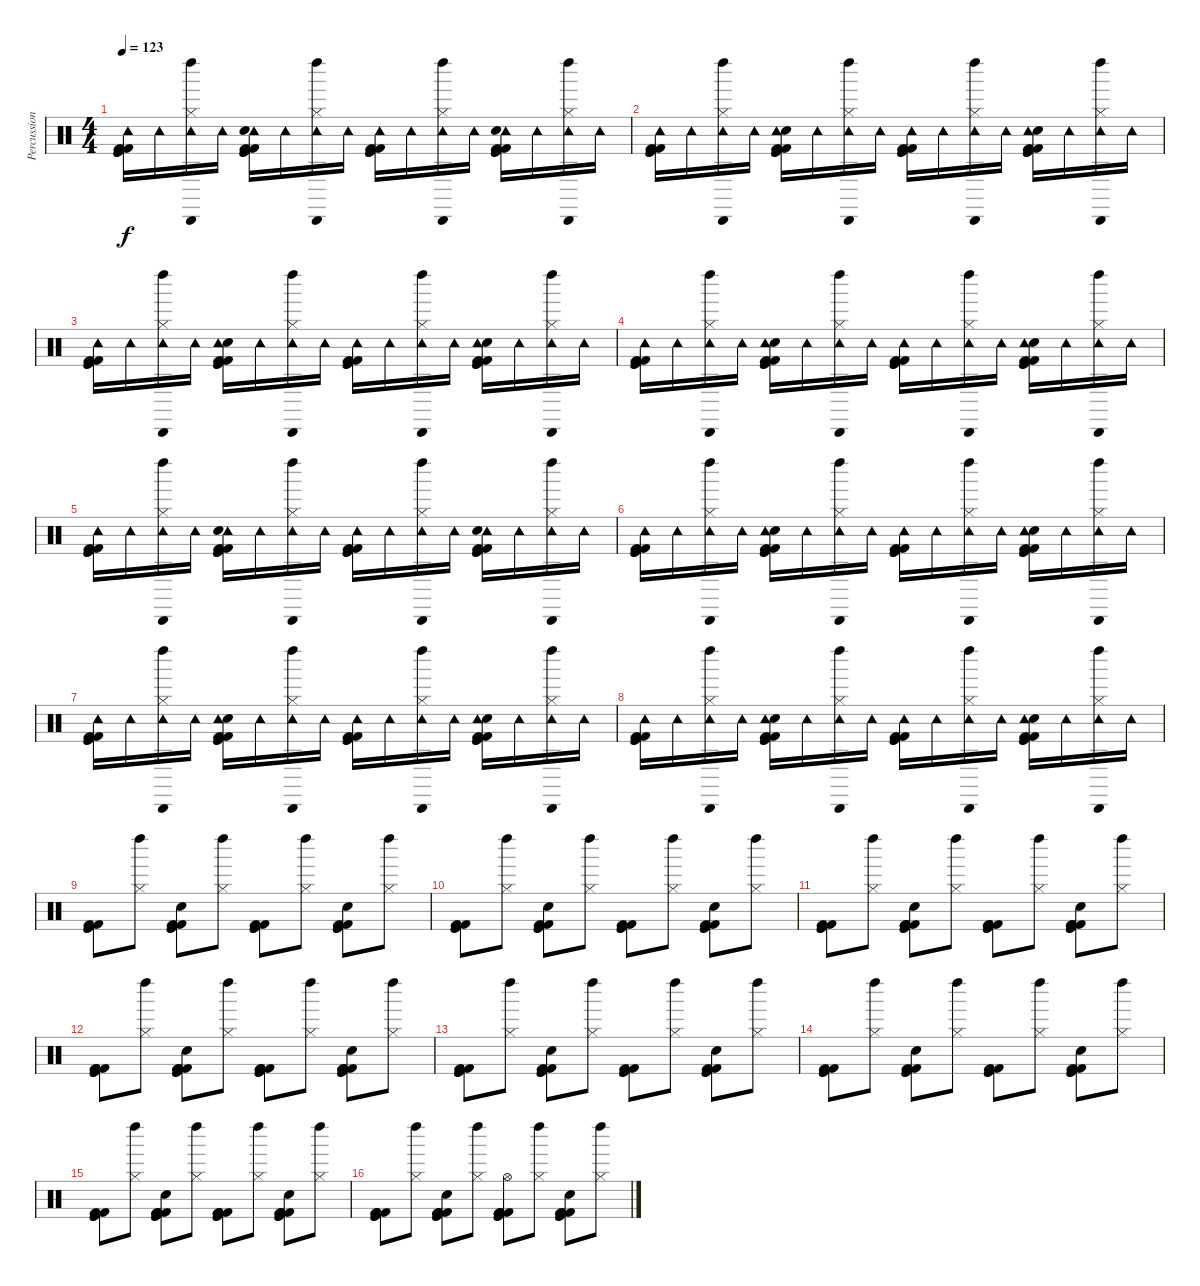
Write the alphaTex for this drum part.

\track ("Percussion" "Percussion") {instrument percussion}
\staff {score}
\articulation defaults
\ts (4 4)
\tempo 123
\clef neutral
\ks c
("Tambourine (hit)" "Kick (hit)" "Kick (hit)" "Kick (hit) 2" "Kick (hit) 2").16{dy f} "Tambourine (hit)".16 ("Tambourine (hit)" "Cabasa (hit)" "Left Maraca (hit)" "Hi-Hat (closed)").16 "Tambourine (hit)".16 ("Tambourine (hit)" "Hand Clap (hit)" "Kick (hit)" "Kick (hit)" "Kick (hit) 2" "Kick (hit) 2").16 "Tambourine (hit)".16 ("Tambourine (hit)" "Cabasa (hit)" "Left Maraca (hit)" "Hi-Hat (closed)").16 "Tambourine (hit)".16 ("Tambourine (hit)" "Kick (hit)" "Kick (hit) 2" "Kick (hit) 2" "Kick (hit)").16 "Tambourine (hit)".16 ("Tambourine (hit)" "Cabasa (hit)" "Left Maraca (hit)" "Hi-Hat (closed)").16 "Tambourine (hit)".16 ("Tambourine (hit)" "Hand Clap (hit)" "Kick (hit) 2" "Kick (hit)" "Kick (hit) 2" "Kick (hit)").16 "Tambourine (hit)".16 ("Tambourine (hit)" "Cabasa (hit)" "Left Maraca (hit)" "Hi-Hat (closed)").16 "Tambourine (hit)".16 |
("Kick (hit)" "Kick (hit)" "Kick (hit) 2" "Kick (hit) 2" "Tambourine (hit)").16 "Tambourine (hit)".16 ("Cabasa (hit)" "Left Maraca (hit)" "Hi-Hat (closed)" "Tambourine (hit)").16 "Tambourine (hit)".16 ("Hand Clap (hit)" "Kick (hit)" "Kick (hit)" "Kick (hit) 2" "Kick (hit) 2" "Tambourine (hit)").16 "Tambourine (hit)".16 ("Cabasa (hit)" "Left Maraca (hit)" "Hi-Hat (closed)" "Tambourine (hit)").16 "Tambourine (hit)".16 ("Kick (hit)" "Kick (hit) 2" "Kick (hit) 2" "Kick (hit)" "Tambourine (hit)").16 "Tambourine (hit)".16 ("Cabasa (hit)" "Left Maraca (hit)" "Hi-Hat (closed)" "Tambourine (hit)").16 "Tambourine (hit)".16 ("Hand Clap (hit)" "Kick (hit) 2" "Kick (hit)" "Kick (hit) 2" "Kick (hit)" "Tambourine (hit)").16 "Tambourine (hit)".16 ("Cabasa (hit)" "Left Maraca (hit)" "Hi-Hat (closed)" "Tambourine (hit)").16 "Tambourine (hit)".16 |
("Kick (hit)" "Kick (hit)" "Kick (hit) 2" "Kick (hit) 2" "Tambourine (hit)").16 "Tambourine (hit)".16 ("Cabasa (hit)" "Left Maraca (hit)" "Hi-Hat (closed)" "Tambourine (hit)").16 "Tambourine (hit)".16 ("Hand Clap (hit)" "Kick (hit)" "Kick (hit)" "Kick (hit) 2" "Kick (hit) 2" "Tambourine (hit)").16 "Tambourine (hit)".16 ("Cabasa (hit)" "Left Maraca (hit)" "Hi-Hat (closed)" "Tambourine (hit)").16 "Tambourine (hit)".16 ("Kick (hit)" "Kick (hit) 2" "Kick (hit) 2" "Kick (hit)" "Tambourine (hit)").16 "Tambourine (hit)".16 ("Cabasa (hit)" "Left Maraca (hit)" "Hi-Hat (closed)" "Tambourine (hit)").16 "Tambourine (hit)".16 ("Hand Clap (hit)" "Kick (hit) 2" "Kick (hit)" "Kick (hit) 2" "Kick (hit)" "Tambourine (hit)").16 "Tambourine (hit)".16 ("Cabasa (hit)" "Left Maraca (hit)" "Hi-Hat (closed)" "Tambourine (hit)").16 "Tambourine (hit)".16 |
("Kick (hit)" "Kick (hit)" "Kick (hit) 2" "Kick (hit) 2" "Tambourine (hit)").16 "Tambourine (hit)".16 ("Cabasa (hit)" "Left Maraca (hit)" "Hi-Hat (closed)" "Tambourine (hit)").16 "Tambourine (hit)".16 ("Hand Clap (hit)" "Kick (hit)" "Kick (hit)" "Kick (hit) 2" "Kick (hit) 2" "Tambourine (hit)").16 "Tambourine (hit)".16 ("Cabasa (hit)" "Left Maraca (hit)" "Hi-Hat (closed)" "Tambourine (hit)").16 "Tambourine (hit)".16 ("Kick (hit)" "Kick (hit) 2" "Kick (hit) 2" "Kick (hit)" "Tambourine (hit)").16 "Tambourine (hit)".16 ("Cabasa (hit)" "Left Maraca (hit)" "Hi-Hat (closed)" "Tambourine (hit)").16 "Tambourine (hit)".16 ("Hand Clap (hit)" "Kick (hit) 2" "Kick (hit)" "Kick (hit) 2" "Kick (hit)" "Tambourine (hit)").16 "Tambourine (hit)".16 ("Cabasa (hit)" "Left Maraca (hit)" "Hi-Hat (closed)" "Tambourine (hit)").16 "Tambourine (hit)".16 |
("Tambourine (hit)" "Kick (hit)" "Kick (hit)" "Kick (hit) 2" "Kick (hit) 2").16 "Tambourine (hit)".16 ("Tambourine (hit)" "Cabasa (hit)" "Left Maraca (hit)" "Hi-Hat (closed)").16 "Tambourine (hit)".16 ("Tambourine (hit)" "Hand Clap (hit)" "Kick (hit)" "Kick (hit)" "Kick (hit) 2" "Kick (hit) 2").16 "Tambourine (hit)".16 ("Tambourine (hit)" "Cabasa (hit)" "Left Maraca (hit)" "Hi-Hat (closed)").16 "Tambourine (hit)".16 ("Tambourine (hit)" "Kick (hit)" "Kick (hit) 2" "Kick (hit) 2" "Kick (hit)").16 "Tambourine (hit)".16 ("Tambourine (hit)" "Cabasa (hit)" "Left Maraca (hit)" "Hi-Hat (closed)").16 "Tambourine (hit)".16 ("Tambourine (hit)" "Hand Clap (hit)" "Kick (hit) 2" "Kick (hit)" "Kick (hit) 2" "Kick (hit)").16 "Tambourine (hit)".16 ("Tambourine (hit)" "Cabasa (hit)" "Left Maraca (hit)" "Hi-Hat (closed)").16 "Tambourine (hit)".16 |
("Kick (hit)" "Kick (hit)" "Kick (hit) 2" "Kick (hit) 2" "Tambourine (hit)").16 "Tambourine (hit)".16 ("Cabasa (hit)" "Left Maraca (hit)" "Hi-Hat (closed)" "Tambourine (hit)").16 "Tambourine (hit)".16 ("Hand Clap (hit)" "Kick (hit)" "Kick (hit)" "Kick (hit) 2" "Kick (hit) 2" "Tambourine (hit)").16 "Tambourine (hit)".16 ("Cabasa (hit)" "Left Maraca (hit)" "Hi-Hat (closed)" "Tambourine (hit)").16 "Tambourine (hit)".16 ("Kick (hit)" "Kick (hit) 2" "Kick (hit) 2" "Kick (hit)" "Tambourine (hit)").16 "Tambourine (hit)".16 ("Cabasa (hit)" "Left Maraca (hit)" "Hi-Hat (closed)" "Tambourine (hit)").16 "Tambourine (hit)".16 ("Hand Clap (hit)" "Kick (hit) 2" "Kick (hit)" "Kick (hit) 2" "Kick (hit)" "Tambourine (hit)").16 "Tambourine (hit)".16 ("Cabasa (hit)" "Left Maraca (hit)" "Hi-Hat (closed)" "Tambourine (hit)").16 "Tambourine (hit)".16 |
("Kick (hit)" "Kick (hit)" "Kick (hit) 2" "Kick (hit) 2" "Tambourine (hit)").16 "Tambourine (hit)".16 ("Cabasa (hit)" "Left Maraca (hit)" "Hi-Hat (closed)" "Tambourine (hit)").16 "Tambourine (hit)".16 ("Hand Clap (hit)" "Kick (hit)" "Kick (hit)" "Kick (hit) 2" "Kick (hit) 2" "Tambourine (hit)").16 "Tambourine (hit)".16 ("Cabasa (hit)" "Left Maraca (hit)" "Hi-Hat (closed)" "Tambourine (hit)").16 "Tambourine (hit)".16 ("Kick (hit)" "Kick (hit) 2" "Kick (hit) 2" "Kick (hit)" "Tambourine (hit)").16 "Tambourine (hit)".16 ("Cabasa (hit)" "Left Maraca (hit)" "Hi-Hat (closed)" "Tambourine (hit)").16 "Tambourine (hit)".16 ("Hand Clap (hit)" "Kick (hit) 2" "Kick (hit)" "Kick (hit) 2" "Kick (hit)" "Tambourine (hit)").16 "Tambourine (hit)".16 ("Cabasa (hit)" "Left Maraca (hit)" "Hi-Hat (closed)" "Tambourine (hit)").16 "Tambourine (hit)".16 |
("Kick (hit)" "Kick (hit)" "Kick (hit) 2" "Kick (hit) 2" "Tambourine (hit)").16 "Tambourine (hit)".16 ("Cabasa (hit)" "Left Maraca (hit)" "Hi-Hat (closed)" "Tambourine (hit)").16 "Tambourine (hit)".16 ("Hand Clap (hit)" "Kick (hit)" "Kick (hit)" "Kick (hit) 2" "Kick (hit) 2" "Tambourine (hit)").16 "Tambourine (hit)".16 ("Cabasa (hit)" "Left Maraca (hit)" "Hi-Hat (closed)" "Tambourine (hit)").16 "Tambourine (hit)".16 ("Kick (hit)" "Kick (hit) 2" "Kick (hit) 2" "Kick (hit)" "Tambourine (hit)").16 "Tambourine (hit)".16 ("Cabasa (hit)" "Left Maraca (hit)" "Hi-Hat (closed)" "Tambourine (hit)").16 "Tambourine (hit)".16 ("Hand Clap (hit)" "Kick (hit) 2" "Kick (hit)" "Kick (hit) 2" "Kick (hit)" "Tambourine (hit)").16 "Tambourine (hit)".16 ("Cabasa (hit)" "Left Maraca (hit)" "Hi-Hat (closed)" "Tambourine (hit)").16 "Tambourine (hit)".16 |
("Kick (hit)" "Kick (hit)" "Kick (hit) 2" "Kick (hit) 2").8 ("Hi-Hat (closed)" "Left Maraca (hit)").8 ("Kick (hit)" "Kick (hit)" "Kick (hit) 2" "Hand Clap (hit)" "Kick (hit) 2").8 ("Hi-Hat (closed)" "Left Maraca (hit)").8 ("Kick (hit)" "Kick (hit)" "Kick (hit) 2" "Kick (hit) 2").8 ("Hi-Hat (closed)" "Left Maraca (hit)").8 ("Kick (hit)" "Kick (hit)" "Kick (hit) 2" "Hand Clap (hit)" "Kick (hit) 2").8 ("Hi-Hat (closed)" "Left Maraca (hit)").8 |
("Kick (hit)" "Kick (hit)" "Kick (hit) 2" "Kick (hit) 2").8 ("Hi-Hat (closed)" "Left Maraca (hit)").8 ("Kick (hit)" "Kick (hit)" "Kick (hit) 2" "Hand Clap (hit)" "Kick (hit) 2").8 ("Hi-Hat (closed)" "Left Maraca (hit)").8 ("Kick (hit)" "Kick (hit)" "Kick (hit) 2" "Kick (hit) 2").8 ("Hi-Hat (closed)" "Left Maraca (hit)").8 ("Kick (hit)" "Kick (hit)" "Kick (hit) 2" "Hand Clap (hit)" "Kick (hit) 2").8 ("Hi-Hat (closed)" "Left Maraca (hit)").8 |
("Kick (hit)" "Kick (hit)" "Kick (hit) 2" "Kick (hit) 2").8 ("Hi-Hat (closed)" "Left Maraca (hit)").8 ("Kick (hit)" "Kick (hit)" "Kick (hit) 2" "Kick (hit) 2" "Hand Clap (hit)" "Kick (hit) 2").8 ("Hi-Hat (closed)" "Left Maraca (hit)").8 ("Kick (hit)" "Kick (hit)" "Kick (hit) 2" "Kick (hit) 2" "Kick (hit) 2").8 ("Hi-Hat (closed)" "Left Maraca (hit)").8 ("Kick (hit)" "Kick (hit)" "Kick (hit) 2" "Kick (hit) 2" "Hand Clap (hit)" "Kick (hit) 2").8 ("Hi-Hat (closed)" "Left Maraca (hit)").8 |
("Kick (hit)" "Kick (hit)" "Kick (hit) 2" "Kick (hit) 2" "Kick (hit) 2").8 ("Hi-Hat (closed)" "Left Maraca (hit)").8 ("Kick (hit)" "Kick (hit)" "Kick (hit) 2" "Kick (hit) 2" "Hand Clap (hit)" "Kick (hit) 2").8 ("Hi-Hat (closed)" "Left Maraca (hit)").8 ("Kick (hit)" "Kick (hit)" "Kick (hit) 2" "Kick (hit) 2" "Kick (hit) 2").8 ("Hi-Hat (closed)" "Left Maraca (hit)").8 ("Kick (hit)" "Kick (hit)" "Kick (hit) 2" "Kick (hit) 2" "Hand Clap (hit)" "Kick (hit) 2").8 ("Hi-Hat (closed)" "Left Maraca (hit)").8 |
("Kick (hit)" "Kick (hit)" "Kick (hit) 2" "Kick (hit) 2").8 ("Hi-Hat (closed)" "Left Maraca (hit)").8 ("Kick (hit)" "Kick (hit)" "Kick (hit) 2" "Hand Clap (hit)" "Kick (hit) 2").8 ("Hi-Hat (closed)" "Left Maraca (hit)").8 ("Kick (hit)" "Kick (hit)" "Kick (hit) 2" "Kick (hit) 2").8 ("Hi-Hat (closed)" "Left Maraca (hit)").8 ("Kick (hit)" "Kick (hit)" "Kick (hit) 2" "Hand Clap (hit)" "Kick (hit) 2").8 ("Hi-Hat (closed)" "Left Maraca (hit)").8 |
("Kick (hit)" "Kick (hit)" "Kick (hit) 2" "Kick (hit) 2").8 ("Hi-Hat (closed)" "Left Maraca (hit)").8 ("Kick (hit)" "Kick (hit)" "Kick (hit) 2" "Hand Clap (hit)" "Kick (hit) 2").8 ("Hi-Hat (closed)" "Left Maraca (hit)").8 ("Kick (hit)" "Kick (hit)" "Kick (hit) 2" "Kick (hit) 2").8 ("Hi-Hat (closed)" "Left Maraca (hit)").8 ("Kick (hit)" "Kick (hit)" "Kick (hit) 2" "Hand Clap (hit)" "Kick (hit) 2").8 ("Hi-Hat (closed)" "Left Maraca (hit)").8 |
("Kick (hit)" "Kick (hit)" "Kick (hit) 2" "Kick (hit) 2").8 ("Hi-Hat (closed)" "Left Maraca (hit)").8 ("Kick (hit)" "Kick (hit)" "Kick (hit) 2" "Kick (hit) 2" "Hand Clap (hit)" "Kick (hit) 2").8 ("Hi-Hat (closed)" "Left Maraca (hit)").8 ("Kick (hit)" "Kick (hit)" "Kick (hit) 2" "Kick (hit) 2" "Kick (hit) 2").8 ("Hi-Hat (closed)" "Left Maraca (hit)").8 ("Kick (hit)" "Kick (hit)" "Kick (hit) 2" "Kick (hit) 2" "Hand Clap (hit)" "Kick (hit) 2").8 ("Hi-Hat (closed)" "Left Maraca (hit)").8 |
("Kick (hit)" "Kick (hit)" "Kick (hit) 2" "Kick (hit) 2" "Kick (hit) 2").8 ("Hi-Hat (closed)" "Left Maraca (hit)").8 ("Kick (hit)" "Kick (hit)" "Kick (hit) 2" "Kick (hit) 2" "Hand Clap (hit)" "Kick (hit) 2").8 ("Hi-Hat (closed)" "Left Maraca (hit)").8 ("Hi-Hat (open)" "Kick (hit)" "Kick (hit)" "Kick (hit) 2" "Kick (hit) 2" "Kick (hit) 2").8 ("Hi-Hat (closed)" "Left Maraca (hit)").8 ("Kick (hit)" "Kick (hit)" "Kick (hit) 2" "Kick (hit) 2" "Hand Clap (hit)" "Kick (hit) 2").8 ("Hi-Hat (closed)" "Left Maraca (hit)").8
